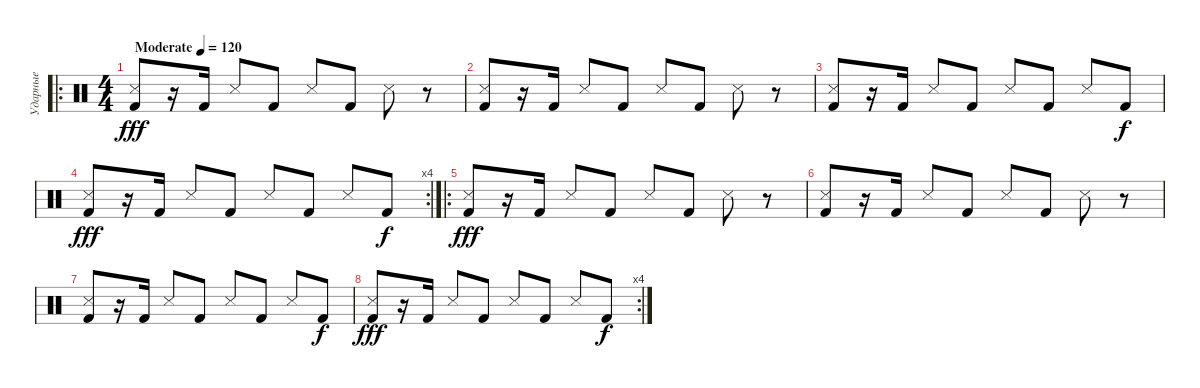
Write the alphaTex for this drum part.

\track ("Ударные" "Ударные") {instrument percussion}
\staff {score}
\articulation defaults
\ro
\ts (4 4)
\tempo (120 "Moderate")
\clef neutral
\ks c
("Snare (side stick) 3" "Kick (hit) 2").8{dy fff} r.16 "Kick (hit) 2".16 "Snare (side stick) 3".8 "Kick (hit) 2".8 "Snare (side stick) 3".8 "Kick (hit) 2".8 "Snare (side stick) 3".8 r.8 |
("Snare (side stick) 3" "Kick (hit) 2").8 r.16 "Kick (hit) 2".16 "Snare (side stick) 3".8 "Kick (hit) 2".8 "Snare (side stick) 3".8 "Kick (hit) 2".8 "Snare (side stick) 3".8 r.8 |
("Snare (side stick) 3" "Kick (hit) 2").8 r.16 "Kick (hit) 2".16 "Snare (side stick) 3".8 "Kick (hit) 2".8 "Snare (side stick) 3".8 "Kick (hit) 2".8 "Snare (side stick) 3".8 "Kick (hit) 2".8{dy f} |
\rc 4
("Snare (side stick) 3" "Kick (hit) 2").8{dy fff} r.16 "Kick (hit) 2".16 "Snare (side stick) 3".8 "Kick (hit) 2".8 "Snare (side stick) 3".8 "Kick (hit) 2".8 "Snare (side stick) 3".8 "Kick (hit) 2".8{dy f} |
\ro
("Snare (side stick) 3" "Kick (hit) 2").8{dy fff} r.16 "Kick (hit) 2".16 "Snare (side stick) 3".8 "Kick (hit) 2".8 "Snare (side stick) 3".8 "Kick (hit) 2".8 "Snare (side stick) 3".8 r.8 |
("Snare (side stick) 3" "Kick (hit) 2").8 r.16 "Kick (hit) 2".16 "Snare (side stick) 3".8 "Kick (hit) 2".8 "Snare (side stick) 3".8 "Kick (hit) 2".8 "Snare (side stick) 3".8 r.8 |
("Snare (side stick) 3" "Kick (hit) 2").8 r.16 "Kick (hit) 2".16 "Snare (side stick) 3".8 "Kick (hit) 2".8 "Snare (side stick) 3".8 "Kick (hit) 2".8 "Snare (side stick) 3".8 "Kick (hit) 2".8{dy f} |
\rc 4
("Snare (side stick) 3" "Kick (hit) 2").8{dy fff} r.16 "Kick (hit) 2".16 "Snare (side stick) 3".8 "Kick (hit) 2".8 "Snare (side stick) 3".8 "Kick (hit) 2".8 "Snare (side stick) 3".8 "Kick (hit) 2".8{dy f}
